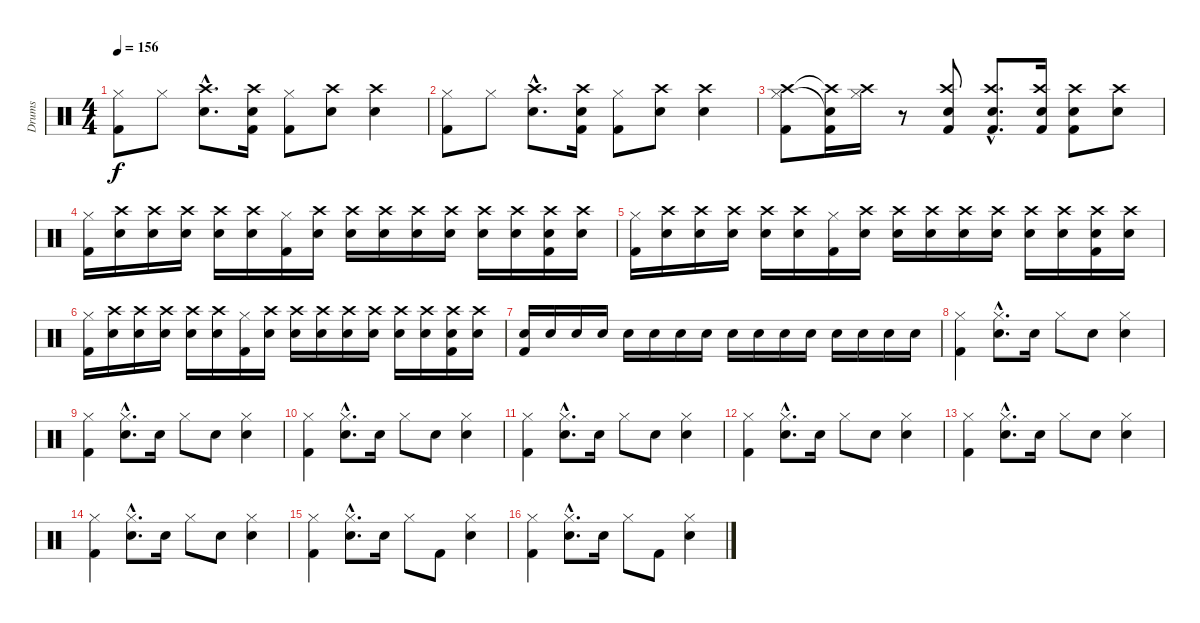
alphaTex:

\track ("Drums" "Drums") {instrument percussion}
\staff {score}
\articulation defaults
\ts (4 4)
\tempo 156
\clef neutral
\ks c
("Hi-Hat (closed)" "Kick (hit) 2").8{dy f} "Hi-Hat (closed)".8 ("Crash high (hit)"{hac} "Snare (hit) 2"{hac}).8{d} ("Crash high (hit)" "Snare (hit) 2" "Kick (hit) 2").16 ("Hi-Hat (closed)" "Kick (hit) 2").8 ("Crash high (hit)" "Snare (hit) 2").8 ("Crash high (hit)" "Snare (hit) 2").4 |
("Hi-Hat (closed)" "Kick (hit) 2").8 "Hi-Hat (closed)".8 ("Crash high (hit)"{hac} "Snare (hit) 2"{hac}).8{d} ("Crash high (hit)" "Snare (hit) 2" "Kick (hit) 2").16 ("Hi-Hat (closed)" "Kick (hit) 2").8 ("Crash high (hit)" "Snare (hit) 2").8 ("Crash high (hit)" "Snare (hit) 2").4 |
("Crash high (hit)" "Hi-Hat (closed)" "Kick (hit) 2").8 ("Crash high (hit)"{t} "Snare (hit)"{t} "Kick (hit) 2").16 ("Crash high (hit)" "Hi-Hat (closed)").16 r.8 ("Crash high (hit)" "Snare (hit) 2" "Kick (hit) 2").8 ("Crash high (hit)"{hac} "Snare (hit) 2"{hac} "Kick (hit) 2"{hac}).8{d} ("Crash high (hit)" "Snare (hit) 2" "Kick (hit) 2").16 ("Crash high (hit)" "Snare (hit) 2" "Kick (hit) 2").8 ("Crash high (hit)" "Snare (hit) 2").8 |
("Hi-Hat (closed)" "Kick (hit) 2").16 ("Crash high (hit)" "Snare (hit) 2").16 ("Crash high (hit)" "Snare (hit) 2").16 ("Crash high (hit)" "Snare (hit) 2").16 ("Crash high (hit)" "Snare (hit) 2").16 ("Crash high (hit)" "Snare (hit) 2").16 ("Hi-Hat (closed)" "Kick (hit) 2").16 ("Crash high (hit)" "Snare (hit) 2").16 ("Crash high (hit)" "Snare (hit) 2").16 ("Crash high (hit)" "Snare (hit) 2").16 ("Crash high (hit)" "Snare (hit) 2").16 ("Crash high (hit)" "Snare (hit) 2").16 ("Crash high (hit)" "Snare (hit) 2").16 ("Crash high (hit)" "Snare (hit) 2").16 ("Crash high (hit)" "Snare (hit) 2" "Kick (hit) 2").16 ("Crash high (hit)" "Snare (hit) 2").16 |
("Hi-Hat (closed)" "Kick (hit) 2").16 ("Crash high (hit)" "Snare (hit) 2").16 ("Crash high (hit)" "Snare (hit) 2").16 ("Crash high (hit)" "Snare (hit) 2").16 ("Crash high (hit)" "Snare (hit) 2").16 ("Crash high (hit)" "Snare (hit) 2").16 ("Hi-Hat (closed)" "Kick (hit) 2").16 ("Crash high (hit)" "Snare (hit) 2").16 ("Crash high (hit)" "Snare (hit) 2").16 ("Crash high (hit)" "Snare (hit) 2").16 ("Crash high (hit)" "Snare (hit) 2").16 ("Crash high (hit)" "Snare (hit) 2").16 ("Crash high (hit)" "Snare (hit) 2").16 ("Crash high (hit)" "Snare (hit) 2").16 ("Crash high (hit)" "Snare (hit) 2" "Kick (hit) 2").16 ("Crash high (hit)" "Snare (hit) 2").16 |
("Hi-Hat (closed)" "Kick (hit) 2").16 ("Crash high (hit)" "Snare (hit) 2").16 ("Crash high (hit)" "Snare (hit) 2").16 ("Crash high (hit)" "Snare (hit) 2").16 ("Crash high (hit)" "Snare (hit) 2").16 ("Crash high (hit)" "Snare (hit) 2").16 ("Hi-Hat (closed)" "Kick (hit) 2").16 ("Crash high (hit)" "Snare (hit) 2").16 ("Crash high (hit)" "Snare (hit) 2").16 ("Crash high (hit)" "Snare (hit) 2").16 ("Crash high (hit)" "Snare (hit) 2").16 ("Crash high (hit)" "Snare (hit) 2").16 ("Crash high (hit)" "Snare (hit) 2").16 ("Crash high (hit)" "Snare (hit) 2").16 ("Crash high (hit)" "Snare (hit) 2" "Kick (hit) 2").16 ("Crash high (hit)" "Snare (hit) 2").16 |
("Snare (hit) 2" "Kick (hit) 2").16 "Snare (hit) 2".16 "Snare (hit) 2".16 "Snare (hit) 2".16 "Snare (hit) 2".16 "Snare (hit) 2".16 "Snare (hit) 2".16 "Snare (hit) 2".16 "Snare (hit) 2".16 "Snare (hit) 2".16 "Snare (hit) 2".16 "Snare (hit) 2".16 "Snare (hit) 2".16 "Snare (hit) 2".16 "Snare (hit) 2".16 "Snare (hit) 2".16 |
("Hi-Hat (closed)" "Kick (hit) 2").4 ("Hi-Hat (closed)"{hac} "Snare (hit) 2"{hac}).8{d} "Snare (hit) 2".16 "Hi-Hat (closed)".8 "Snare (hit) 2".8 ("Hi-Hat (closed)" "Snare (hit) 2").4 |
("Hi-Hat (closed)" "Kick (hit) 2").4 ("Hi-Hat (closed)"{hac} "Snare (hit) 2"{hac}).8{d} "Snare (hit) 2".16 "Hi-Hat (closed)".8 "Snare (hit) 2".8 ("Hi-Hat (closed)" "Snare (hit) 2").4 |
("Hi-Hat (closed)" "Kick (hit) 2").4 ("Hi-Hat (closed)"{hac} "Snare (hit) 2"{hac}).8{d} "Snare (hit) 2".16 "Hi-Hat (closed)".8 "Snare (hit) 2".8 ("Hi-Hat (closed)" "Snare (hit) 2").4 |
("Hi-Hat (closed)" "Kick (hit) 2").4 ("Hi-Hat (closed)"{hac} "Snare (hit) 2"{hac}).8{d} "Snare (hit) 2".16 "Hi-Hat (closed)".8 "Snare (hit) 2".8 ("Hi-Hat (closed)" "Snare (hit) 2").4 |
("Hi-Hat (closed)" "Kick (hit) 2").4 ("Hi-Hat (closed)"{hac} "Snare (hit) 2"{hac}).8{d} "Snare (hit) 2".16 "Hi-Hat (closed)".8 "Snare (hit) 2".8 ("Hi-Hat (closed)" "Snare (hit) 2").4 |
("Hi-Hat (closed)" "Kick (hit) 2").4 ("Hi-Hat (closed)"{hac} "Snare (hit) 2"{hac}).8{d} "Snare (hit) 2".16 "Hi-Hat (closed)".8 "Snare (hit) 2".8 ("Hi-Hat (closed)" "Snare (hit) 2").4 |
("Hi-Hat (closed)" "Kick (hit) 2").4 ("Hi-Hat (closed)"{hac} "Snare (hit) 2"{hac}).8{d} "Snare (hit) 2".16 "Hi-Hat (closed)".8 "Snare (hit) 2".8 ("Hi-Hat (closed)" "Snare (hit) 2").4 |
("Hi-Hat (closed)" "Kick (hit) 2").4 ("Hi-Hat (closed)"{hac} "Snare (hit) 2"{hac}).8{d} "Snare (hit) 2".16 "Hi-Hat (closed)".8 "Kick (hit) 2".8 ("Hi-Hat (closed)" "Snare (hit) 2").4 |
("Hi-Hat (closed)" "Kick (hit) 2").4 ("Hi-Hat (closed)"{hac} "Snare (hit) 2"{hac}).8{d} "Snare (hit) 2".16 "Hi-Hat (closed)".8 "Kick (hit) 2".8 ("Hi-Hat (closed)" "Snare (hit) 2").4
